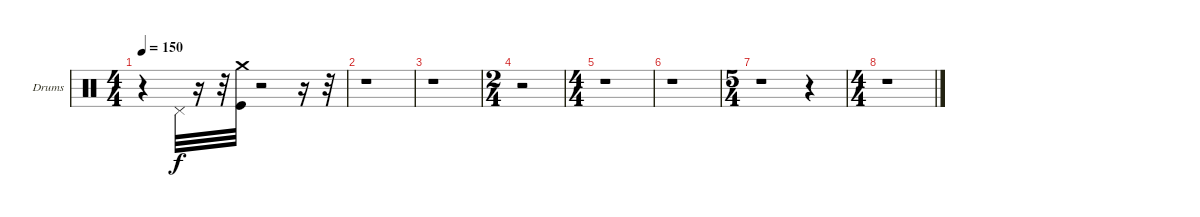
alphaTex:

\bracketExtendMode groupsimilarinstruments
\firstSystemTrackNameOrientation horizontal
\otherSystemsTrackNameOrientation horizontal
\track ("Drumkit" "Drums") {instrument percussion}
\staff {score}
\articulation defaults
\ts (4 4)
\tempo 150
\clef neutral
\ks c
r.4{dy f} "Pedal Hi-Hat (hit)".32 r.16 r.32 ("Crash medium (hit)" "Kick (hit)").32 r.2 r.16 r.32 |
r.1 |
r.1 |
\ts (2 4)
r.2 |
\ts (4 4)
r.1 |
r.1 |
\ts (5 4)
r.1 r.4 |
\ts (4 4)
r.1
